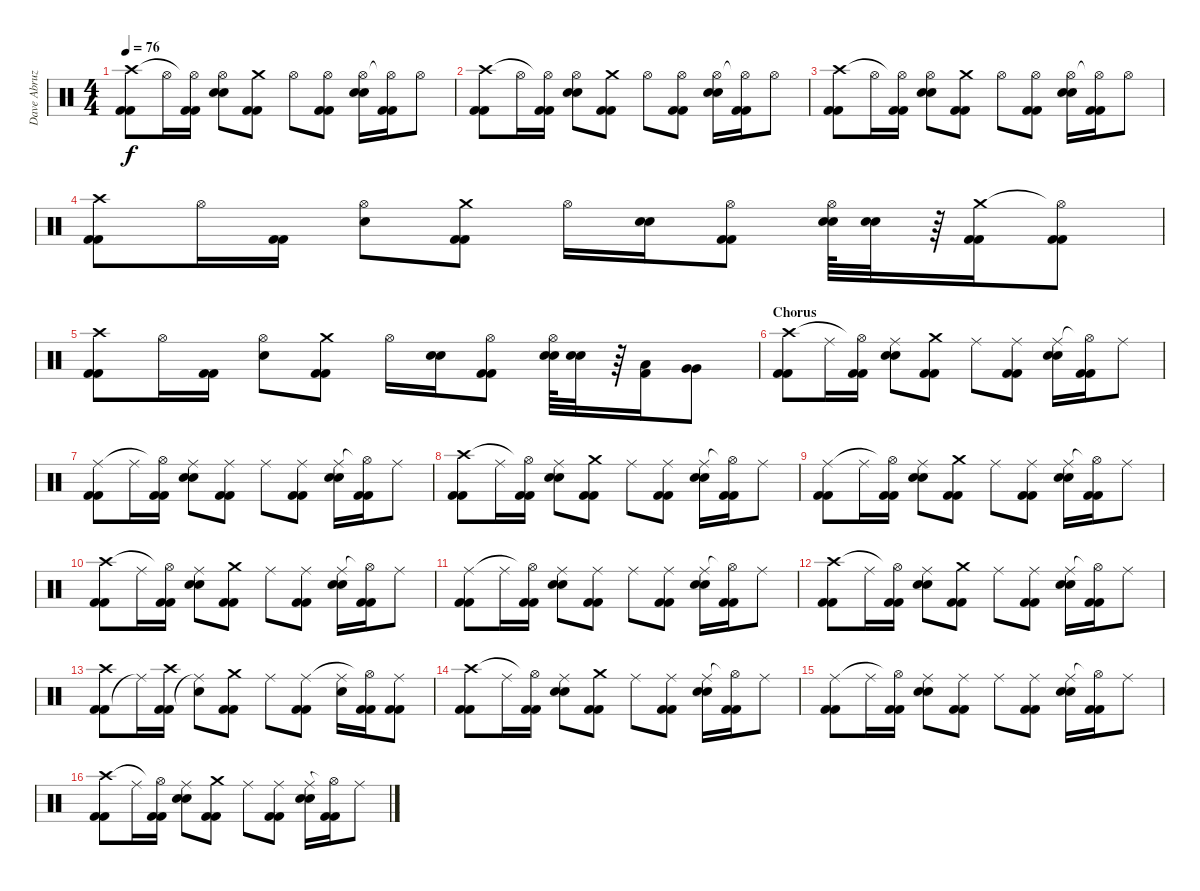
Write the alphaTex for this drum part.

\track ("Dave Abruzzese" "Dave Abruz") {instrument percussion}
\staff {score}
\articulation defaults
\ts (4 4)
\tempo 76
\clef neutral
\ks c
("Kick (hit) 2" "Kick (hit) 2" "Crash high (hit)").8{dy f} "Hi-Hat (open)".16 ("Kick (hit) 2" "Kick (hit) 2" "Hi-Hat (open)"{t}).16 ("Electric Snare (hit)" "Electric Snare (hit)" "Hi-Hat (open)").8 ("Kick (hit) 2" "Kick (hit) 2" "Crash medium (hit)").8 "Hi-Hat (open)".8 ("Kick (hit) 2" "Kick (hit) 2" "Hi-Hat (open)").8 ("Electric Snare (hit)" "Electric Snare (hit)" "Hi-Hat (open)").16 ("Kick (hit) 2" "Kick (hit) 2" "Hi-Hat (open)"{t}).16 "Hi-Hat (open)".8 |
("Kick (hit) 2" "Kick (hit) 2" "Crash high (hit)").8 "Hi-Hat (open)".16 ("Kick (hit) 2" "Kick (hit) 2" "Hi-Hat (open)"{t}).16 ("Electric Snare (hit)" "Electric Snare (hit)" "Hi-Hat (open)").8 ("Kick (hit) 2" "Kick (hit) 2" "Crash medium (hit)").8 "Hi-Hat (open)".8 ("Kick (hit) 2" "Kick (hit) 2" "Hi-Hat (open)").8 ("Electric Snare (hit)" "Electric Snare (hit)" "Hi-Hat (open)").16 ("Kick (hit) 2" "Kick (hit) 2" "Hi-Hat (open)"{t}).16 "Hi-Hat (open)".8 |
("Kick (hit) 2" "Kick (hit) 2" "Crash high (hit)").8 "Hi-Hat (open)".16 ("Kick (hit) 2" "Kick (hit) 2" "Hi-Hat (open)"{t}).16 ("Electric Snare (hit)" "Electric Snare (hit)" "Hi-Hat (open)").8 ("Kick (hit) 2" "Kick (hit) 2" "Crash medium (hit)").8 "Hi-Hat (open)".8 ("Kick (hit) 2" "Kick (hit) 2" "Hi-Hat (open)").8 ("Electric Snare (hit)" "Electric Snare (hit)" "Hi-Hat (open)").16 ("Kick (hit) 2" "Kick (hit) 2" "Hi-Hat (open)"{t}).16 "Hi-Hat (open)".8 |
("Kick (hit) 2" "Kick (hit) 2" "Crash high (hit)").8 "Hi-Hat (open)".16 ("Kick (hit) 2" "Kick (hit) 2").16 ("Electric Snare (hit)" "Hi-Hat (open)").8 ("Kick (hit) 2" "Kick (hit) 2" "Crash medium (hit)").8 "Hi-Hat (open)".16 ("Electric Snare (hit)" "Electric Snare (hit)").16 ("Kick (hit) 2" "Kick (hit) 2" "Hi-Hat (open)").8 ("Electric Snare (hit)" "Electric Snare (hit)" "Hi-Hat (open)").64 ("Electric Snare (hit)" "Electric Snare (hit)").32 r.64 ("Kick (hit) 2" "Kick (hit) 2" "Crash medium (hit)").16 ("Kick (hit) 2" "Kick (hit) 2" "Hi-Hat (open)"{t}).8 |
("Kick (hit) 2" "Kick (hit) 2" "Crash high (hit)").8 "Hi-Hat (open)".16 ("Kick (hit) 2" "Kick (hit) 2").16 ("Electric Snare (hit)" "Hi-Hat (open)").8 ("Kick (hit) 2" "Kick (hit) 2" "Crash medium (hit)").8 "Hi-Hat (open)".16 ("Electric Snare (hit)" "Electric Snare (hit)").16 ("Kick (hit) 2" "Kick (hit) 2" "Hi-Hat (open)").8 ("Electric Snare (hit)" "Electric Snare (hit)" "Hi-Hat (open)").64 ("Electric Snare (hit)" "Electric Snare (hit)").32 r.64 ("Low Tom (hit)" "Kick (hit) 2").16 ("Very Low Tom (hit)" "Very Low Tom (hit)").8 |
\section ("" "Chorus")
("Kick (hit) 2" "Kick (hit) 2" "Crash high (hit)").8 "Ride (middle)".16 ("Kick (hit) 2" "Kick (hit) 2" "Hi-Hat (open)"{t}).16 ("Electric Snare (hit)" "Electric Snare (hit)" "Ride (middle)").8 ("Kick (hit) 2" "Kick (hit) 2" "Crash medium (hit)").8 "Ride (middle)".8 ("Kick (hit) 2" "Kick (hit) 2" "Ride (middle)").8 ("Electric Snare (hit)" "Electric Snare (hit)" "Ride (middle)").16 ("Kick (hit) 2" "Kick (hit) 2" "Hi-Hat (open)"{t}).16 "Ride (middle)".8 |
("Kick (hit) 2" "Kick (hit) 2" "Ride (middle)").8 "Ride (middle)".16 ("Kick (hit) 2" "Kick (hit) 2" "Hi-Hat (open)"{t}).16 ("Electric Snare (hit)" "Electric Snare (hit)" "Ride (middle)").8 ("Kick (hit) 2" "Kick (hit) 2" "Ride (middle)").8 "Ride (middle)".8 ("Kick (hit) 2" "Kick (hit) 2" "Ride (middle)").8 ("Electric Snare (hit)" "Electric Snare (hit)" "Ride (middle)").16 ("Kick (hit) 2" "Kick (hit) 2" "Hi-Hat (open)"{t}).16 "Ride (middle)".8 |
("Kick (hit) 2" "Kick (hit) 2" "Crash high (hit)").8 "Ride (middle)".16 ("Kick (hit) 2" "Kick (hit) 2" "Hi-Hat (open)"{t}).16 ("Electric Snare (hit)" "Electric Snare (hit)" "Ride (middle)").8 ("Kick (hit) 2" "Kick (hit) 2" "Crash medium (hit)").8 "Ride (middle)".8 ("Kick (hit) 2" "Kick (hit) 2" "Ride (middle)").8 ("Electric Snare (hit)" "Electric Snare (hit)" "Ride (middle)").16 ("Kick (hit) 2" "Kick (hit) 2" "Hi-Hat (open)"{t}).16 "Ride (middle)".8 |
("Kick (hit) 2" "Kick (hit) 2" "Ride (middle)").8 "Ride (middle)".16 ("Kick (hit) 2" "Kick (hit) 2" "Hi-Hat (open)"{t}).16 ("Electric Snare (hit)" "Electric Snare (hit)" "Ride (middle)").8 ("Kick (hit) 2" "Kick (hit) 2" "Crash medium (hit)").8 "Ride (middle)".8 ("Kick (hit) 2" "Kick (hit) 2" "Ride (middle)").8 ("Electric Snare (hit)" "Electric Snare (hit)" "Ride (middle)").16 ("Kick (hit) 2" "Kick (hit) 2" "Hi-Hat (open)"{t}).16 "Ride (middle)".8 |
("Kick (hit) 2" "Kick (hit) 2" "Crash high (hit)").8 "Ride (middle)".16 ("Kick (hit) 2" "Kick (hit) 2" "Hi-Hat (open)"{t}).16 ("Electric Snare (hit)" "Electric Snare (hit)" "Ride (middle)").8 ("Kick (hit) 2" "Kick (hit) 2" "Crash medium (hit)").8 "Ride (middle)".8 ("Kick (hit) 2" "Kick (hit) 2" "Ride (middle)").8 ("Electric Snare (hit)" "Electric Snare (hit)" "Ride (middle)").16 ("Kick (hit) 2" "Kick (hit) 2" "Hi-Hat (open)"{t}).16 "Ride (middle)".8 |
("Kick (hit) 2" "Kick (hit) 2" "Ride (middle)").8 "Ride (middle)".16 ("Kick (hit) 2" "Kick (hit) 2" "Hi-Hat (open)"{t}).16 ("Electric Snare (hit)" "Electric Snare (hit)" "Ride (middle)").8 ("Kick (hit) 2" "Kick (hit) 2" "Ride (middle)").8 "Ride (middle)".8 ("Kick (hit) 2" "Kick (hit) 2" "Ride (middle)").8 ("Electric Snare (hit)" "Electric Snare (hit)" "Ride (middle)").16 ("Kick (hit) 2" "Kick (hit) 2" "Hi-Hat (open)"{t}).16 "Ride (middle)".8 |
("Kick (hit) 2" "Kick (hit) 2" "Crash high (hit)").8 "Ride (middle)".16 ("Kick (hit) 2" "Kick (hit) 2" "Hi-Hat (open)"{t}).16 ("Electric Snare (hit)" "Electric Snare (hit)" "Ride (middle)").8 ("Kick (hit) 2" "Kick (hit) 2" "Crash medium (hit)").8 "Ride (middle)".8 ("Kick (hit) 2" "Kick (hit) 2" "Ride (middle)").8 ("Electric Snare (hit)" "Electric Snare (hit)" "Ride (middle)").16 ("Kick (hit) 2" "Kick (hit) 2" "Hi-Hat (open)"{t}).16 "Ride (middle)".8 |
("Kick (hit) 2" "Kick (hit) 2" "Crash high (hit)").8 "Ride (middle)"{t}.16 ("Kick (hit) 2" "Kick (hit) 2" "Crash high (hit)").16 ("Electric Snare (hit)" "Ride (middle)"{t}).8 ("Kick (hit) 2" "Kick (hit) 2" "Crash medium (hit)").8 "Ride (middle)".8 ("Kick (hit) 2" "Kick (hit) 2" "Ride (middle)").8 ("Electric Snare (hit)" "Ride (middle)").16 ("Kick (hit) 2" "Kick (hit) 2" "Hi-Hat (open)"{t}).16 ("Kick (hit) 2" "Kick (hit) 2" "Ride (middle)").8 |
("Kick (hit) 2" "Kick (hit) 2" "Crash high (hit)").8 "Ride (middle)".16 ("Kick (hit) 2" "Kick (hit) 2" "Hi-Hat (open)"{t}).16 ("Electric Snare (hit)" "Electric Snare (hit)" "Ride (middle)").8 ("Kick (hit) 2" "Kick (hit) 2" "Crash medium (hit)").8 "Ride (middle)".8 ("Kick (hit) 2" "Kick (hit) 2" "Ride (middle)").8 ("Electric Snare (hit)" "Electric Snare (hit)" "Ride (middle)").16 ("Kick (hit) 2" "Kick (hit) 2" "Hi-Hat (open)"{t}).16 "Ride (middle)".8 |
("Kick (hit) 2" "Kick (hit) 2" "Ride (middle)").8 "Ride (middle)".16 ("Kick (hit) 2" "Kick (hit) 2" "Hi-Hat (open)"{t}).16 ("Electric Snare (hit)" "Electric Snare (hit)" "Ride (middle)").8 ("Kick (hit) 2" "Kick (hit) 2" "Ride (middle)").8 "Ride (middle)".8 ("Kick (hit) 2" "Kick (hit) 2" "Ride (middle)").8 ("Electric Snare (hit)" "Electric Snare (hit)" "Ride (middle)").16 ("Kick (hit) 2" "Kick (hit) 2" "Hi-Hat (open)"{t}).16 "Ride (middle)".8 |
("Kick (hit) 2" "Kick (hit) 2" "Crash high (hit)").8 "Ride (middle)".16 ("Kick (hit) 2" "Kick (hit) 2" "Hi-Hat (open)"{t}).16 ("Electric Snare (hit)" "Electric Snare (hit)" "Ride (middle)").8 ("Kick (hit) 2" "Kick (hit) 2" "Crash medium (hit)").8 "Ride (middle)".8 ("Kick (hit) 2" "Kick (hit) 2" "Ride (middle)").8 ("Electric Snare (hit)" "Electric Snare (hit)" "Ride (middle)").16 ("Kick (hit) 2" "Kick (hit) 2" "Hi-Hat (open)"{t}).16 "Ride (middle)".8
